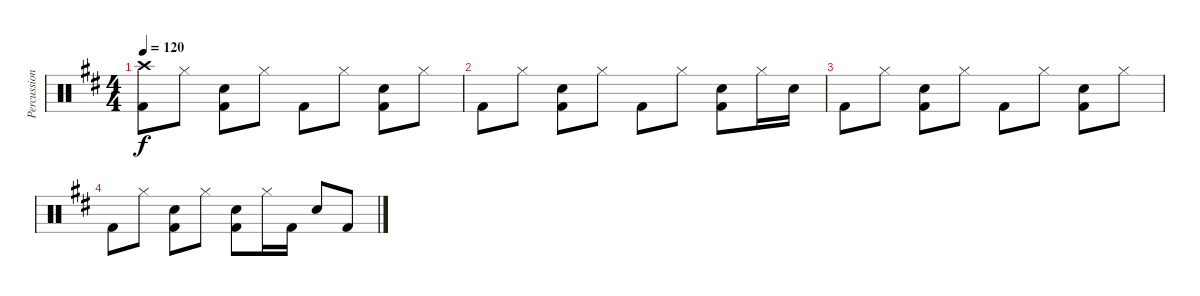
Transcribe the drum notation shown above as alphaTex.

\track ("Percussion" "Percussion") {instrument percussion}
\staff {score}
\articulation defaults
\ts (4 4)
\tempo 120
\clef neutral
\ks d
("Crash high (hit)" "Kick (hit) 2").8{dy f} "Hi-Hat (closed)".8 ("Snare (hit) 2" "Kick (hit) 2").8 "Hi-Hat (closed)".8 "Kick (hit) 2".8 "Hi-Hat (closed)".8 ("Snare (hit) 2" "Kick (hit) 2").8 "Hi-Hat (closed)".8 |
"Kick (hit) 2".8 "Hi-Hat (closed)".8 ("Snare (hit) 2" "Kick (hit) 2").8 "Hi-Hat (closed)".8 "Kick (hit) 2".8 "Hi-Hat (closed)".8 ("Snare (hit) 2" "Kick (hit) 2").8 "Hi-Hat (closed)".16 "Snare (hit) 2".16 |
"Kick (hit) 2".8 "Hi-Hat (closed)".8 ("Snare (hit) 2" "Kick (hit) 2").8 "Hi-Hat (closed)".8 "Kick (hit) 2".8 "Hi-Hat (closed)".8 ("Snare (hit) 2" "Kick (hit) 2").8 "Hi-Hat (closed)".8 |
"Kick (hit) 2".8 "Hi-Hat (closed)".8 ("Snare (hit) 2" "Kick (hit) 2").8 "Hi-Hat (closed)".8 ("Snare (hit) 2" "Kick (hit) 2").8 "Hi-Hat (closed)".16 "Kick (hit) 2".16 "Snare (hit) 2".8 "Kick (hit) 2".8
